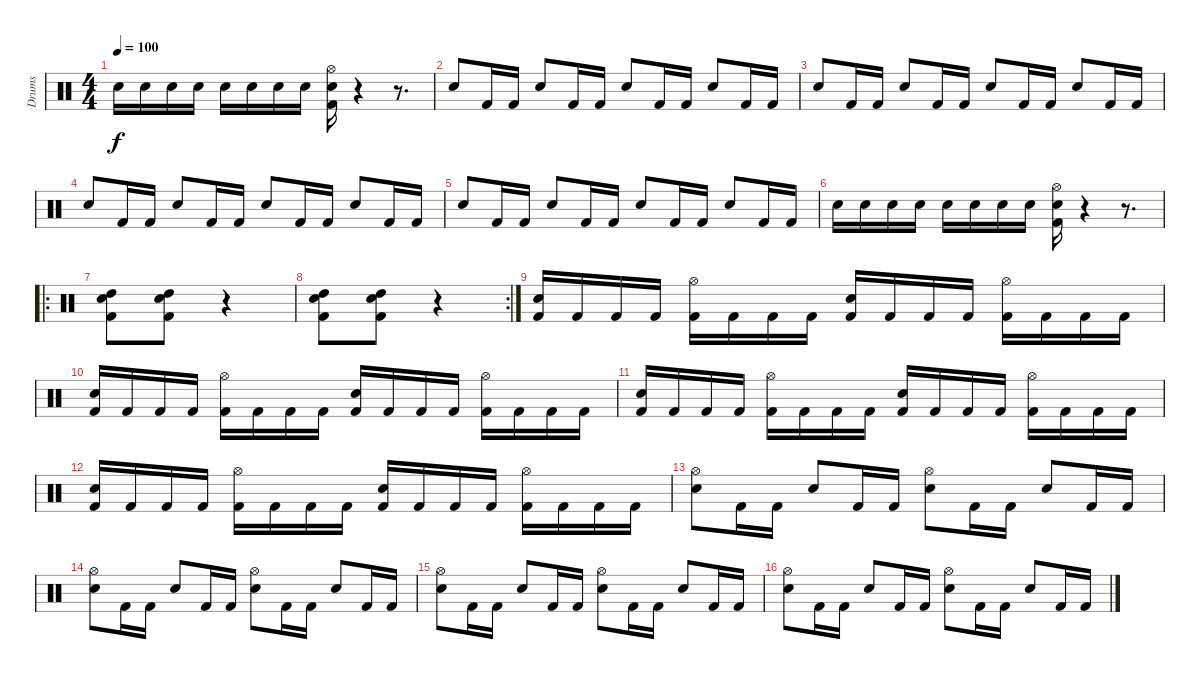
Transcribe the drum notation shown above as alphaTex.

\track ("Drums" "Drums") {instrument percussion}
\staff {score}
\articulation defaults
\ts (4 4)
\tempo 100
\clef neutral
\ks c "Snare (hit) 2".16{dy f} "Snare (hit) 2".16 "Snare (hit) 2".16 "Snare (hit) 2".16 "Snare (hit) 2".16 "Snare (hit) 2".16 "Snare (hit) 2".16 "Snare (hit) 2".16
("Kick (hit) 2" "Snare (hit) 2" "Hi-Hat (open)").16 r.4 r.8{d} |
"Snare (hit) 2".8 "Kick (hit) 2".16 "Kick (hit) 2".16 "Snare (hit) 2".8 "Kick (hit) 2".16 "Kick (hit) 2".16 "Snare (hit) 2".8 "Kick (hit) 2".16 "Kick (hit) 2".16 "Snare (hit) 2".8 "Kick (hit) 2".16 "Kick (hit) 2".16 |
"Snare (hit) 2".8 "Kick (hit) 2".16 "Kick (hit) 2".16 "Snare (hit) 2".8 "Kick (hit) 2".16 "Kick (hit) 2".16 "Snare (hit) 2".8 "Kick (hit) 2".16 "Kick (hit) 2".16 "Snare (hit) 2".8 "Kick (hit) 2".16 "Kick (hit) 2".16 |
"Snare (hit) 2".8 "Kick (hit) 2".16 "Kick (hit) 2".16 "Snare (hit) 2".8 "Kick (hit) 2".16 "Kick (hit) 2".16 "Snare (hit) 2".8 "Kick (hit) 2".16 "Kick (hit) 2".16 "Snare (hit) 2".8 "Kick (hit) 2".16 "Kick (hit) 2".16 |
"Snare (hit) 2".8 "Kick (hit) 2".16 "Kick (hit) 2".16 "Snare (hit) 2".8 "Kick (hit) 2".16 "Kick (hit) 2".16 "Snare (hit) 2".8 "Kick (hit) 2".16 "Kick (hit) 2".16 "Snare (hit) 2".8 "Kick (hit) 2".16 "Kick (hit) 2".16 |
"Snare (hit) 2".16 "Snare (hit) 2".16 "Snare (hit) 2".16 "Snare (hit) 2".16 "Snare (hit) 2".16 "Snare (hit) 2".16 "Snare (hit) 2".16 "Snare (hit) 2".16 ("Kick (hit) 2" "Snare (hit) 2" "Hi-Hat (open)").16 r.4 r.8{d} |
\ro
("Kick (hit) 2" "Snare (hit) 2" "High Tom (hit)").8 ("Kick (hit) 2" "Snare (hit) 2" "High Tom (hit)").8 r.4 |
\rc 2
("Kick (hit) 2" "Snare (hit) 2" "High Tom (hit)").8 ("Kick (hit) 2" "Snare (hit) 2" "High Tom (hit)").8 r.4 |
("Kick (hit) 2" "Snare (hit) 2").16 "Kick (hit) 2".16 "Kick (hit) 2".16 "Kick (hit) 2".16 ("Kick (hit) 2" "Hi-Hat (open)").16 "Kick (hit) 2".16 "Kick (hit) 2".16 "Kick (hit) 2".16 ("Kick (hit) 2" "Snare (hit) 2").16 "Kick (hit) 2".16 "Kick (hit) 2".16 "Kick (hit) 2".16 ("Kick (hit) 2" "Hi-Hat (open)").16 "Kick (hit) 2".16 "Kick (hit) 2".16 "Kick (hit) 2".16 |
("Kick (hit) 2" "Snare (hit) 2").16 "Kick (hit) 2".16 "Kick (hit) 2".16 "Kick (hit) 2".16 ("Kick (hit) 2" "Hi-Hat (open)").16 "Kick (hit) 2".16 "Kick (hit) 2".16 "Kick (hit) 2".16 ("Kick (hit) 2" "Snare (hit) 2").16 "Kick (hit) 2".16 "Kick (hit) 2".16 "Kick (hit) 2".16 ("Kick (hit) 2" "Hi-Hat (open)").16 "Kick (hit) 2".16 "Kick (hit) 2".16 "Kick (hit) 2".16 |
("Kick (hit) 2" "Snare (hit) 2").16 "Kick (hit) 2".16 "Kick (hit) 2".16 "Kick (hit) 2".16 ("Kick (hit) 2" "Hi-Hat (open)").16 "Kick (hit) 2".16 "Kick (hit) 2".16 "Kick (hit) 2".16 ("Kick (hit) 2" "Snare (hit) 2").16 "Kick (hit) 2".16 "Kick (hit) 2".16 "Kick (hit) 2".16 ("Kick (hit) 2" "Hi-Hat (open)").16 "Kick (hit) 2".16 "Kick (hit) 2".16 "Kick (hit) 2".16 |
("Kick (hit) 2" "Snare (hit) 2").16 "Kick (hit) 2".16 "Kick (hit) 2".16 "Kick (hit) 2".16 ("Kick (hit) 2" "Hi-Hat (open)").16 "Kick (hit) 2".16 "Kick (hit) 2".16 "Kick (hit) 2".16 ("Kick (hit) 2" "Snare (hit) 2").16 "Kick (hit) 2".16 "Kick (hit) 2".16 "Kick (hit) 2".16 ("Kick (hit) 2" "Hi-Hat (open)").16 "Kick (hit) 2".16 "Kick (hit) 2".16 "Kick (hit) 2".16 |
("Snare (hit) 2" "Hi-Hat (open)").8 "Kick (hit) 2".16 "Kick (hit) 2".16 "Snare (hit) 2".8 "Kick (hit) 2".16 "Kick (hit) 2".16 ("Snare (hit) 2" "Hi-Hat (open)").8 "Kick (hit) 2".16 "Kick (hit) 2".16 "Snare (hit) 2".8 "Kick (hit) 2".16 "Kick (hit) 2".16 |
("Snare (hit) 2" "Hi-Hat (open)").8 "Kick (hit) 2".16 "Kick (hit) 2".16 "Snare (hit) 2".8 "Kick (hit) 2".16 "Kick (hit) 2".16 ("Snare (hit) 2" "Hi-Hat (open)").8 "Kick (hit) 2".16 "Kick (hit) 2".16 "Snare (hit) 2".8 "Kick (hit) 2".16 "Kick (hit) 2".16 |
("Snare (hit) 2" "Hi-Hat (open)").8 "Kick (hit) 2".16 "Kick (hit) 2".16 "Snare (hit) 2".8 "Kick (hit) 2".16 "Kick (hit) 2".16 ("Snare (hit) 2" "Hi-Hat (open)").8 "Kick (hit) 2".16 "Kick (hit) 2".16 "Snare (hit) 2".8 "Kick (hit) 2".16 "Kick (hit) 2".16 |
("Snare (hit) 2" "Hi-Hat (open)").8 "Kick (hit) 2".16 "Kick (hit) 2".16 "Snare (hit) 2".8 "Kick (hit) 2".16 "Kick (hit) 2".16 ("Snare (hit) 2" "Hi-Hat (open)").8 "Kick (hit) 2".16 "Kick (hit) 2".16 "Snare (hit) 2".8 "Kick (hit) 2".16 "Kick (hit) 2".16
